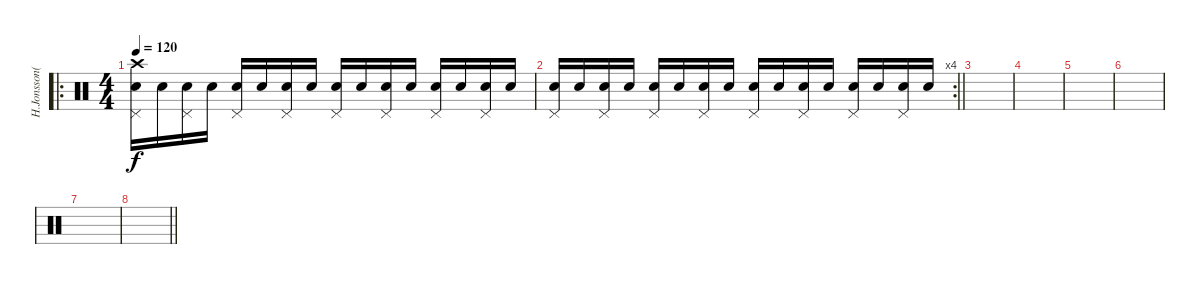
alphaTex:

\track ("H.Jonsson(Drums)" "H.Jonsson(") {instrument percussion}
\staff {score}
\articulation defaults
\ro
\ts (4 4)
\tempo 120
\clef neutral
\ks c
("Crash high (hit)" "Pedal Hi-Hat (hit)" "Snare (hit) 2").16{dy f} "Electric Snare (hit)".16 ("Pedal Hi-Hat (hit)" "Snare (hit) 2").16 "Electric Snare (hit)".16 ("Pedal Hi-Hat (hit)" "Snare (hit) 2").16 "Electric Snare (hit)".16 ("Pedal Hi-Hat (hit)" "Snare (hit) 2").16 "Electric Snare (hit)".16 ("Pedal Hi-Hat (hit)" "Snare (hit) 2").16 "Electric Snare (hit)".16 ("Pedal Hi-Hat (hit)" "Snare (hit) 2").16 "Electric Snare (hit)".16 ("Pedal Hi-Hat (hit)" "Snare (hit) 2").16 "Electric Snare (hit)".16 ("Pedal Hi-Hat (hit)" "Snare (hit) 2").16 "Electric Snare (hit)".16 |
\rc 4
\barLineRight lightlight
("Pedal Hi-Hat (hit)" "Snare (hit) 2").16 "Electric Snare (hit)".16 ("Pedal Hi-Hat (hit)" "Snare (hit) 2").16 "Electric Snare (hit)".16 ("Pedal Hi-Hat (hit)" "Snare (hit) 2").16 "Electric Snare (hit)".16 ("Pedal Hi-Hat (hit)" "Snare (hit) 2").16 "Electric Snare (hit)".16 ("Pedal Hi-Hat (hit)" "Snare (hit) 2").16 "Electric Snare (hit)".16 ("Pedal Hi-Hat (hit)" "Snare (hit) 2").16 "Electric Snare (hit)".16 ("Pedal Hi-Hat (hit)" "Snare (hit) 2").16 "Electric Snare (hit)".16 ("Pedal Hi-Hat (hit)" "Snare (hit) 2").16 "Electric Snare (hit)".16 |
|
|
|
|
|
\barLineRight lightlight
